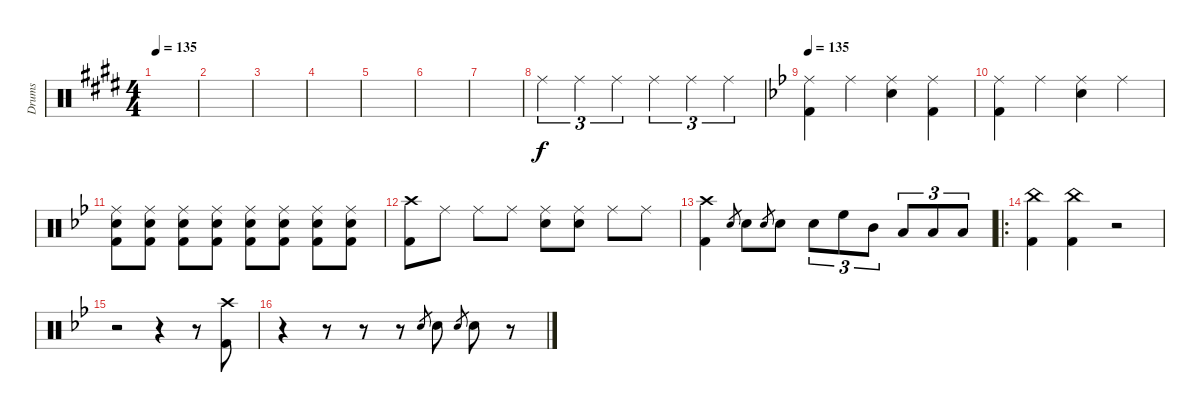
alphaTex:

\track ("Drums" "Drums") {instrument percussion}
\staff {score}
\articulation defaults
\ts (4 4)
\tempo 135
\clef neutral
\ks e
|
|
|
|
|
|
|
"Ride (middle)".4{tu (3 2)} "Ride (middle)".4{tu (3 2)} "Ride (middle)".4{tu (3 2)} "Ride (middle)".4{tu (3 2)} "Ride (middle)".4{tu (3 2)} "Ride (middle)".4{tu (3 2)} |
\tempo 135
\ks bb
("Ride (middle)" "Kick (hit) 2").4 "Ride (middle)".4 ("Ride (middle)" "Snare (hit) 2").4 ("Ride (middle)" "Kick (hit) 2").4 |
("Ride (middle)" "Kick (hit) 2").4 "Ride (middle)".4 ("Ride (middle)" "Snare (hit) 2").4 "Ride (middle)".4 |
("Ride (middle)" "Snare (hit) 2" "Kick (hit) 2").8{volume 6} ("Ride (middle)" "Snare (hit) 2" "Kick (hit) 2").8 ("Ride (middle)" "Snare (hit) 2" "Kick (hit) 2").8{volume 8} ("Ride (middle)" "Snare (hit) 2" "Kick (hit) 2").8 ("Ride (middle)" "Snare (hit) 2" "Kick (hit) 2").8{volume 11} ("Ride (middle)" "Snare (hit) 2" "Kick (hit) 2").8 ("Ride (middle)" "Snare (hit) 2" "Kick (hit) 2").8{volume 13} ("Ride (middle)" "Snare (hit) 2" "Kick (hit) 2").8 |
("Crash high (hit)" "Kick (hit) 2").8 "Ride (middle)".8 "Ride (middle)".8 "Ride (middle)".8 ("Ride (middle)" "Snare (hit) 2").8 ("Ride (middle)" "Snare (hit) 2").8 "Ride (middle)".8 "Ride (middle)".8 |
("Crash high (hit)" "Kick (hit) 2").4 "Snare (hit) 2".8{gr} "Snare (hit) 2".8 "Snare (hit) 2".8{gr} "Snare (hit) 2".8 "Snare (hit) 2".8{tu (3 2)} "High Floor Tom (hit)".8{tu (3 2)} "Mid Tom (hit)".8{tu (3 2)} "Low Tom (hit)".8{tu (3 2)} "Low Floor Tom (hit)".8{tu (3 2)} "Low Floor Tom (hit)".8{tu (3 2)} |
\ro
("China (hit)" "Kick (hit) 2").4 ("China (hit)" "Kick (hit) 2").4 r.2 |
r.2 r.4 r.8 ("Crash high (hit)" "Kick (hit) 2").8 |
r.4 r.8 r.8 r.8 "Snare (hit) 2".8{gr} "Snare (hit) 2".8 "Snare (hit) 2".8{gr} "Snare (hit) 2".8 r.8
